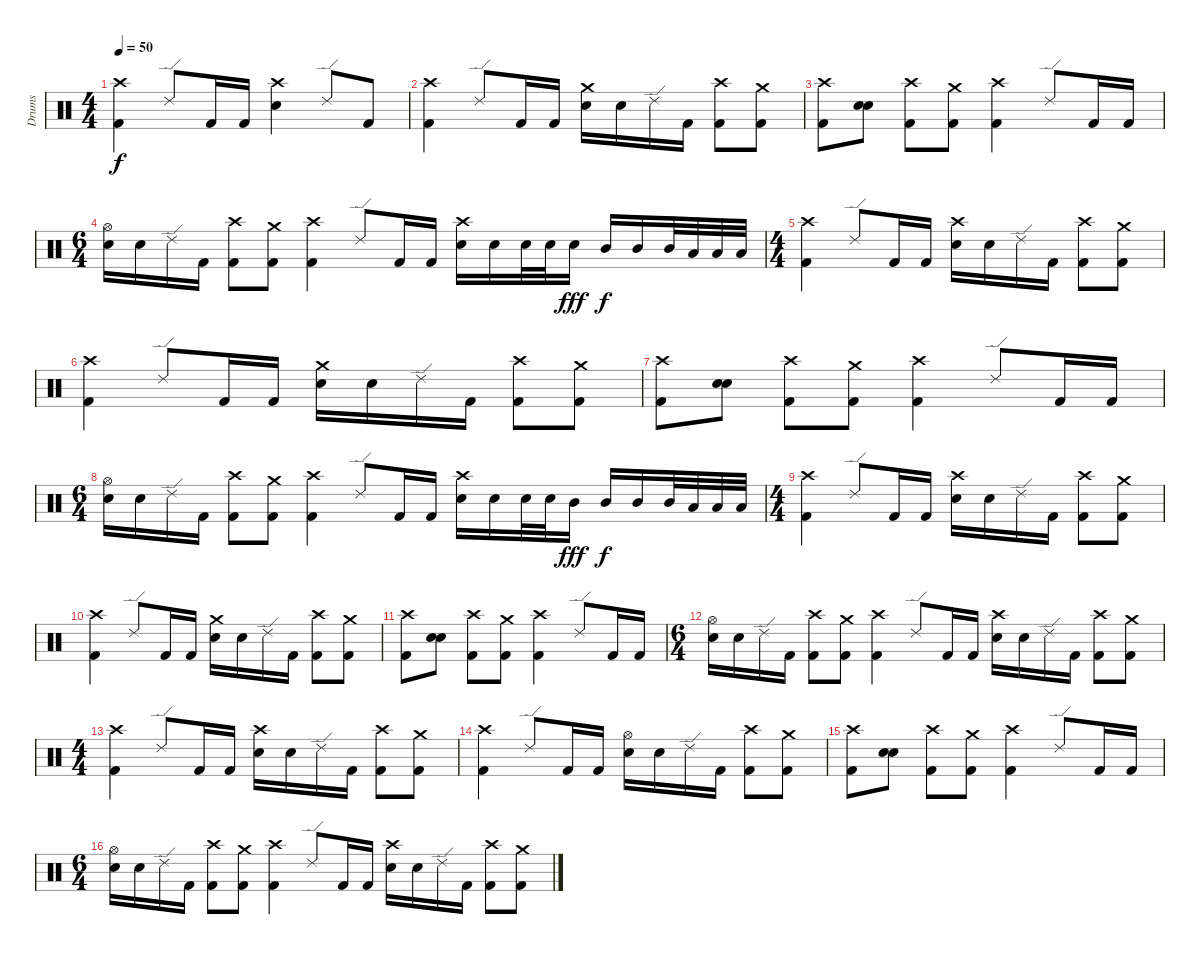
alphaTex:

\track ("Drums" "Drums") {instrument percussion}
\staff {score}
\articulation defaults
\ts (4 4)
\tempo 50
\clef neutral
\ks c
("Crash high (hit)" "Kick (hit) 2").4{dy f} "Ride (edge) 2".8 "Kick (hit) 2".16 "Kick (hit) 2".16 ("Crash high (hit)" "Electric Snare (hit)").4 "Ride (edge) 2".8 "Kick (hit) 2".8 |
("Crash high (hit)" "Kick (hit) 2").4 "Ride (edge) 2".8 "Kick (hit) 2".16 "Kick (hit) 2".16 ("Crash medium (hit)" "Electric Snare (hit)").16 "Electric Snare (hit)".16 "Ride (edge) 2".16 "Kick (hit) 2".16 ("Crash high (hit)" "Kick (hit) 2").8 ("Crash medium (hit)" "Kick (hit) 2").8 |
("Crash high (hit)" "Kick (hit) 2").8 ("Electric Snare (hit)" "Electric Snare (hit)").8{bu 60} ("Crash high (hit)" "Kick (hit) 2").8 ("Crash medium (hit)" "Kick (hit) 2").8 ("Crash high (hit)" "Kick (hit) 2").4 "Ride (edge) 2".8 "Kick (hit) 2".16 "Kick (hit) 2".16 |
\ts (6 4)
("Hi-Hat (open)" "Electric Snare (hit)").16 "Electric Snare (hit)".16 "Ride (edge) 2".16 "Kick (hit) 2".16 ("Crash high (hit)" "Kick (hit) 2").8 ("Crash medium (hit)" "Kick (hit) 2").8 ("Crash high (hit)" "Kick (hit) 2").4 "Ride (edge) 2".8 "Kick (hit) 2".16 "Kick (hit) 2".16 ("Crash high (hit)" "Electric Snare (hit)").16 "Electric Snare (hit)".16 "Electric Snare (hit)".32 "Electric Snare (hit)".32 "Electric Snare (hit)".16{dy fff} "Mid Tom (hit)".16{dy f} "Mid Tom (hit)".16 "Mid Tom (hit)".32 "Low Tom (hit)".32 "Low Tom (hit)".32 "Low Tom (hit)".32 |
\ts (4 4)
("Crash high (hit)" "Kick (hit) 2").4 "Ride (edge) 2".8 "Kick (hit) 2".16 "Kick (hit) 2".16 ("Crash high (hit)" "Electric Snare (hit)").16 "Electric Snare (hit)".16 "Ride (edge) 2".16 "Kick (hit) 2".16 ("Crash high (hit)" "Kick (hit) 2").8 ("Crash medium (hit)" "Kick (hit) 2").8 |
("Crash high (hit)" "Kick (hit) 2").4 "Ride (edge) 2".8 "Kick (hit) 2".16 "Kick (hit) 2".16 ("Crash medium (hit)" "Electric Snare (hit)").16 "Electric Snare (hit)".16 "Ride (edge) 2".16 "Kick (hit) 2".16 ("Crash high (hit)" "Kick (hit) 2").8 ("Crash medium (hit)" "Kick (hit) 2").8 |
("Crash high (hit)" "Kick (hit) 2").8 ("Electric Snare (hit)" "Electric Snare (hit)").8{bu 60} ("Crash high (hit)" "Kick (hit) 2").8 ("Crash medium (hit)" "Kick (hit) 2").8 ("Crash high (hit)" "Kick (hit) 2").4 "Ride (edge) 2".8 "Kick (hit) 2".16 "Kick (hit) 2".16 |
\ts (6 4)
("Hi-Hat (open)" "Electric Snare (hit)").16 "Electric Snare (hit)".16 "Ride (edge) 2".16 "Kick (hit) 2".16 ("Crash high (hit)" "Kick (hit) 2").8 ("Crash medium (hit)" "Kick (hit) 2").8 ("Crash high (hit)" "Kick (hit) 2").4 "Ride (edge) 2".8 "Kick (hit) 2".16 "Kick (hit) 2".16 ("Crash high (hit)" "Electric Snare (hit)").16 "Electric Snare (hit)".16 "Electric Snare (hit)".32 "Electric Snare (hit)".32 "Mid Tom (hit)".16{dy fff} "Mid Tom (hit)".16{dy f} "Mid Tom (hit)".16 "Mid Tom (hit)".32 "Low Tom (hit)".32 "Low Tom (hit)".32 "Low Tom (hit)".32 |
\ts (4 4)
("Crash high (hit)" "Kick (hit) 2").4 "Ride (edge) 2".8 "Kick (hit) 2".16 "Kick (hit) 2".16 ("Crash high (hit)" "Electric Snare (hit)").16 "Electric Snare (hit)".16 "Ride (edge) 2".16 "Kick (hit) 2".16 ("Crash high (hit)" "Kick (hit) 2").8 ("Crash medium (hit)" "Kick (hit) 2").8 |
("Crash high (hit)" "Kick (hit) 2").4 "Ride (edge) 2".8 "Kick (hit) 2".16 "Kick (hit) 2".16 ("Crash medium (hit)" "Electric Snare (hit)").16 "Electric Snare (hit)".16 "Ride (edge) 2".16 "Kick (hit) 2".16 ("Crash high (hit)" "Kick (hit) 2").8 ("Crash medium (hit)" "Kick (hit) 2").8 |
("Crash high (hit)" "Kick (hit) 2").8 ("Electric Snare (hit)" "Electric Snare (hit)").8{bu 60} ("Crash high (hit)" "Kick (hit) 2").8 ("Crash medium (hit)" "Kick (hit) 2").8 ("Crash high (hit)" "Kick (hit) 2").4 "Ride (edge) 2".8 "Kick (hit) 2".16 "Kick (hit) 2".16 |
\ts (6 4)
("Hi-Hat (open)" "Electric Snare (hit)").16 "Electric Snare (hit)".16 "Ride (edge) 2".16 "Kick (hit) 2".16 ("Crash high (hit)" "Kick (hit) 2").8 ("Crash medium (hit)" "Kick (hit) 2").8 ("Crash high (hit)" "Kick (hit) 2").4 "Ride (edge) 2".8 "Kick (hit) 2".16 "Kick (hit) 2".16 ("Crash high (hit)" "Electric Snare (hit)").16 "Electric Snare (hit)".16 "Ride (edge) 2".16 "Kick (hit) 2".16 ("Crash high (hit)" "Kick (hit) 2").8 ("Crash medium (hit)" "Kick (hit) 2").8 |
\ts (4 4)
("Crash high (hit)" "Kick (hit) 2").4 "Ride (edge) 2".8 "Kick (hit) 2".16 "Kick (hit) 2".16 ("Crash high (hit)" "Electric Snare (hit)").16 "Electric Snare (hit)".16 "Ride (edge) 2".16 "Kick (hit) 2".16 ("Crash high (hit)" "Kick (hit) 2").8 ("Crash medium (hit)" "Kick (hit) 2").8 |
("Crash high (hit)" "Kick (hit) 2").4 "Ride (edge) 2".8 "Kick (hit) 2".16 "Kick (hit) 2".16 ("Hi-Hat (open)" "Electric Snare (hit)").16 "Electric Snare (hit)".16 "Ride (edge) 2".16 "Kick (hit) 2".16 ("Crash high (hit)" "Kick (hit) 2").8 ("Crash medium (hit)" "Kick (hit) 2").8 |
("Crash high (hit)" "Kick (hit) 2").8 ("Electric Snare (hit)" "Electric Snare (hit)").8{bu 60} ("Crash high (hit)" "Kick (hit) 2").8 ("Crash medium (hit)" "Kick (hit) 2").8 ("Crash high (hit)" "Kick (hit) 2").4 "Ride (edge) 2".8 "Kick (hit) 2".16 "Kick (hit) 2".16 |
\ts (6 4)
("Hi-Hat (open)" "Electric Snare (hit)").16 "Electric Snare (hit)".16 "Ride (edge) 2".16 "Kick (hit) 2".16 ("Crash high (hit)" "Kick (hit) 2").8 ("Crash medium (hit)" "Kick (hit) 2").8 ("Crash high (hit)" "Kick (hit) 2").4 "Ride (edge) 2".8 "Kick (hit) 2".16 "Kick (hit) 2".16 ("Crash high (hit)" "Electric Snare (hit)").16 "Electric Snare (hit)".16 "Ride (edge) 2".16 "Kick (hit) 2".16 ("Crash high (hit)" "Kick (hit) 2").8 ("Crash medium (hit)" "Kick (hit) 2").8
